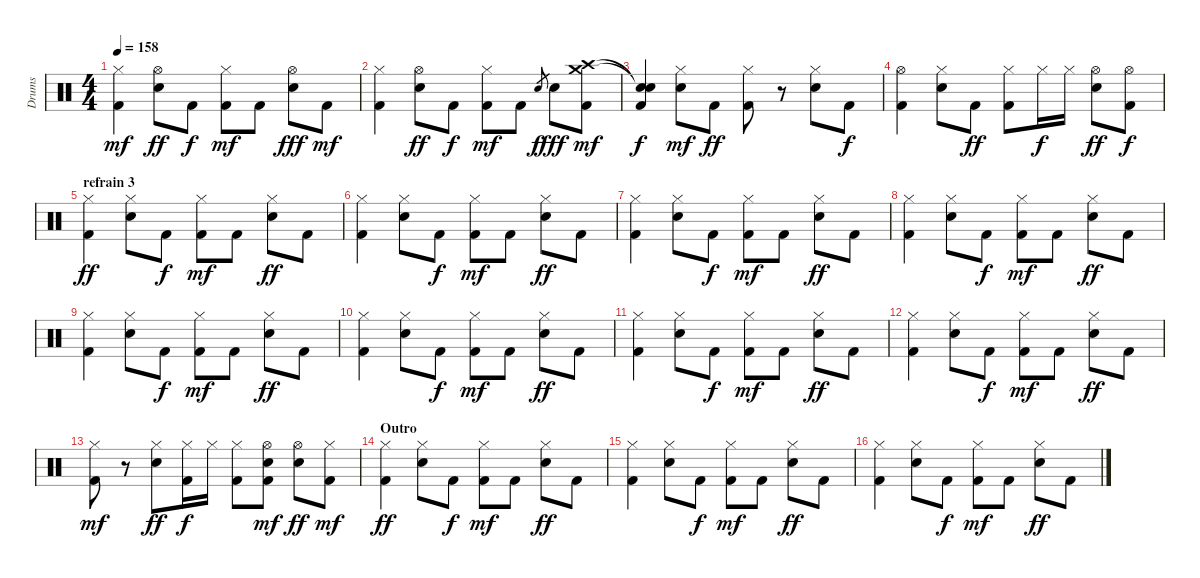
\track ("Drums" "Drums") {instrument percussion}
\staff {score}
\articulation defaults
\ts (4 4)
\tempo 158
\clef neutral
\ks c
("Hi-Hat (closed)" "Kick (hit) 2").4{dy mf} ("Hi-Hat (open)" "Snare (hit) 2").8{dy ff} "Kick (hit) 2".8{dy f} ("Hi-Hat (closed)" "Kick (hit) 2").8{dy mf} "Kick (hit) 2".8 ("Hi-Hat (open)" "Snare (hit) 2").8{dy fff} "Kick (hit) 2".8{dy mf} |
("Hi-Hat (closed)" "Kick (hit) 2").4 ("Hi-Hat (open)" "Snare (hit) 2").8{dy ff} "Kick (hit) 2".8{dy f} ("Hi-Hat (closed)" "Kick (hit) 2").8{dy mf} "Kick (hit) 2".8 "Snare (hit) 2".8{gr dy f} "Snare (hit) 2".8{dy fff} ("Crash medium (hit)" "Crash high (hit)" "Kick (hit) 2").8{dy mf} |
("Snare (hit)"{t} "Snare (hit)"{t} "Kick (hit) 2").4{dy f} ("Hi-Hat (closed)" "Snare (hit) 2").8{dy mf} "Kick (hit) 2".8{dy ff} ("Hi-Hat (closed)" "Kick (hit) 2").8 r.8 ("Hi-Hat (closed)" "Snare (hit) 2").8 "Kick (hit) 2".8{dy f} |
("Hi-Hat (open)" "Kick (hit) 2").4 ("Hi-Hat (closed)" "Snare (hit) 2").8 "Kick (hit) 2".8{dy ff} ("Hi-Hat (closed)" "Kick (hit) 2").8 "Hi-Hat (closed)".16{dy f} "Hi-Hat (closed)".16 ("Hi-Hat (open)" "Snare (hit) 2").8{dy ff} ("Hi-Hat (open)" "Kick (hit) 2").8{dy f} |
\section ("" "refrain 3")
("Hi-Hat (closed)" "Kick (hit) 2").4{dy ff} ("Hi-Hat (closed)" "Snare (hit) 2").8 "Kick (hit) 2".8{dy f} ("Hi-Hat (closed)" "Kick (hit) 2").8{dy mf} "Kick (hit) 2".8 ("Hi-Hat (closed)" "Snare (hit) 2").8{dy ff} "Kick (hit) 2".8 |
("Hi-Hat (closed)" "Kick (hit) 2").4 ("Hi-Hat (closed)" "Snare (hit) 2").8 "Kick (hit) 2".8{dy f} ("Hi-Hat (closed)" "Kick (hit) 2").8{dy mf} "Kick (hit) 2".8 ("Hi-Hat (closed)" "Snare (hit) 2").8{dy ff} "Kick (hit) 2".8 |
("Hi-Hat (closed)" "Kick (hit) 2").4 ("Hi-Hat (closed)" "Snare (hit) 2").8 "Kick (hit) 2".8{dy f} ("Hi-Hat (closed)" "Kick (hit) 2").8{dy mf} "Kick (hit) 2".8 ("Hi-Hat (closed)" "Snare (hit) 2").8{dy ff} "Kick (hit) 2".8 |
("Hi-Hat (closed)" "Kick (hit) 2").4 ("Hi-Hat (closed)" "Snare (hit) 2").8 "Kick (hit) 2".8{dy f} ("Hi-Hat (closed)" "Kick (hit) 2").8{dy mf} "Kick (hit) 2".8 ("Hi-Hat (closed)" "Snare (hit) 2").8{dy ff} "Kick (hit) 2".8 |
("Hi-Hat (closed)" "Kick (hit) 2").4 ("Hi-Hat (closed)" "Snare (hit) 2").8 "Kick (hit) 2".8{dy f} ("Hi-Hat (closed)" "Kick (hit) 2").8{dy mf} "Kick (hit) 2".8 ("Hi-Hat (closed)" "Snare (hit) 2").8{dy ff} "Kick (hit) 2".8 |
("Hi-Hat (closed)" "Kick (hit) 2").4 ("Hi-Hat (closed)" "Snare (hit) 2").8 "Kick (hit) 2".8{dy f} ("Hi-Hat (closed)" "Kick (hit) 2").8{dy mf} "Kick (hit) 2".8 ("Hi-Hat (closed)" "Snare (hit) 2").8{dy ff} "Kick (hit) 2".8 |
("Hi-Hat (closed)" "Kick (hit) 2").4 ("Hi-Hat (closed)" "Snare (hit) 2").8 "Kick (hit) 2".8{dy f} ("Hi-Hat (closed)" "Kick (hit) 2").8{dy mf} "Kick (hit) 2".8 ("Hi-Hat (closed)" "Snare (hit) 2").8{dy ff} "Kick (hit) 2".8 |
("Hi-Hat (closed)" "Kick (hit) 2").4 ("Hi-Hat (closed)" "Snare (hit) 2").8 "Kick (hit) 2".8{dy f} ("Hi-Hat (closed)" "Kick (hit) 2").8{dy mf} "Kick (hit) 2".8 ("Hi-Hat (closed)" "Snare (hit) 2").8{dy ff} "Kick (hit) 2".8 |
("Hi-Hat (closed)" "Kick (hit) 2").8{dy mf} r.8 ("Hi-Hat (closed)" "Snare (hit) 2").8{dy ff} ("Hi-Hat (closed)" "Kick (hit) 2").16{dy f} "Hi-Hat (closed)".16 ("Hi-Hat (closed)" "Kick (hit) 2").8 ("Hi-Hat (open)" "Snare (hit) 2" "Kick (hit) 2").8{dy mf} ("Hi-Hat (open)" "Snare (hit) 2").8{dy ff} ("Hi-Hat (closed)" "Kick (hit) 2").8{dy mf} |
\section ("" "Outro")
("Hi-Hat (closed)" "Kick (hit) 2").4{dy ff} ("Hi-Hat (closed)" "Snare (hit) 2").8 "Kick (hit) 2".8{dy f} ("Hi-Hat (closed)" "Kick (hit) 2").8{dy mf} "Kick (hit) 2".8 ("Hi-Hat (closed)" "Snare (hit) 2").8{dy ff} "Kick (hit) 2".8 |
("Hi-Hat (closed)" "Kick (hit) 2").4 ("Hi-Hat (closed)" "Snare (hit) 2").8 "Kick (hit) 2".8{dy f} ("Hi-Hat (closed)" "Kick (hit) 2").8{dy mf} "Kick (hit) 2".8 ("Hi-Hat (closed)" "Snare (hit) 2").8{dy ff} "Kick (hit) 2".8 |
("Hi-Hat (closed)" "Kick (hit) 2").4 ("Hi-Hat (closed)" "Snare (hit) 2").8 "Kick (hit) 2".8{dy f} ("Hi-Hat (closed)" "Kick (hit) 2").8{dy mf} "Kick (hit) 2".8 ("Hi-Hat (closed)" "Snare (hit) 2").8{dy ff} "Kick (hit) 2".8
